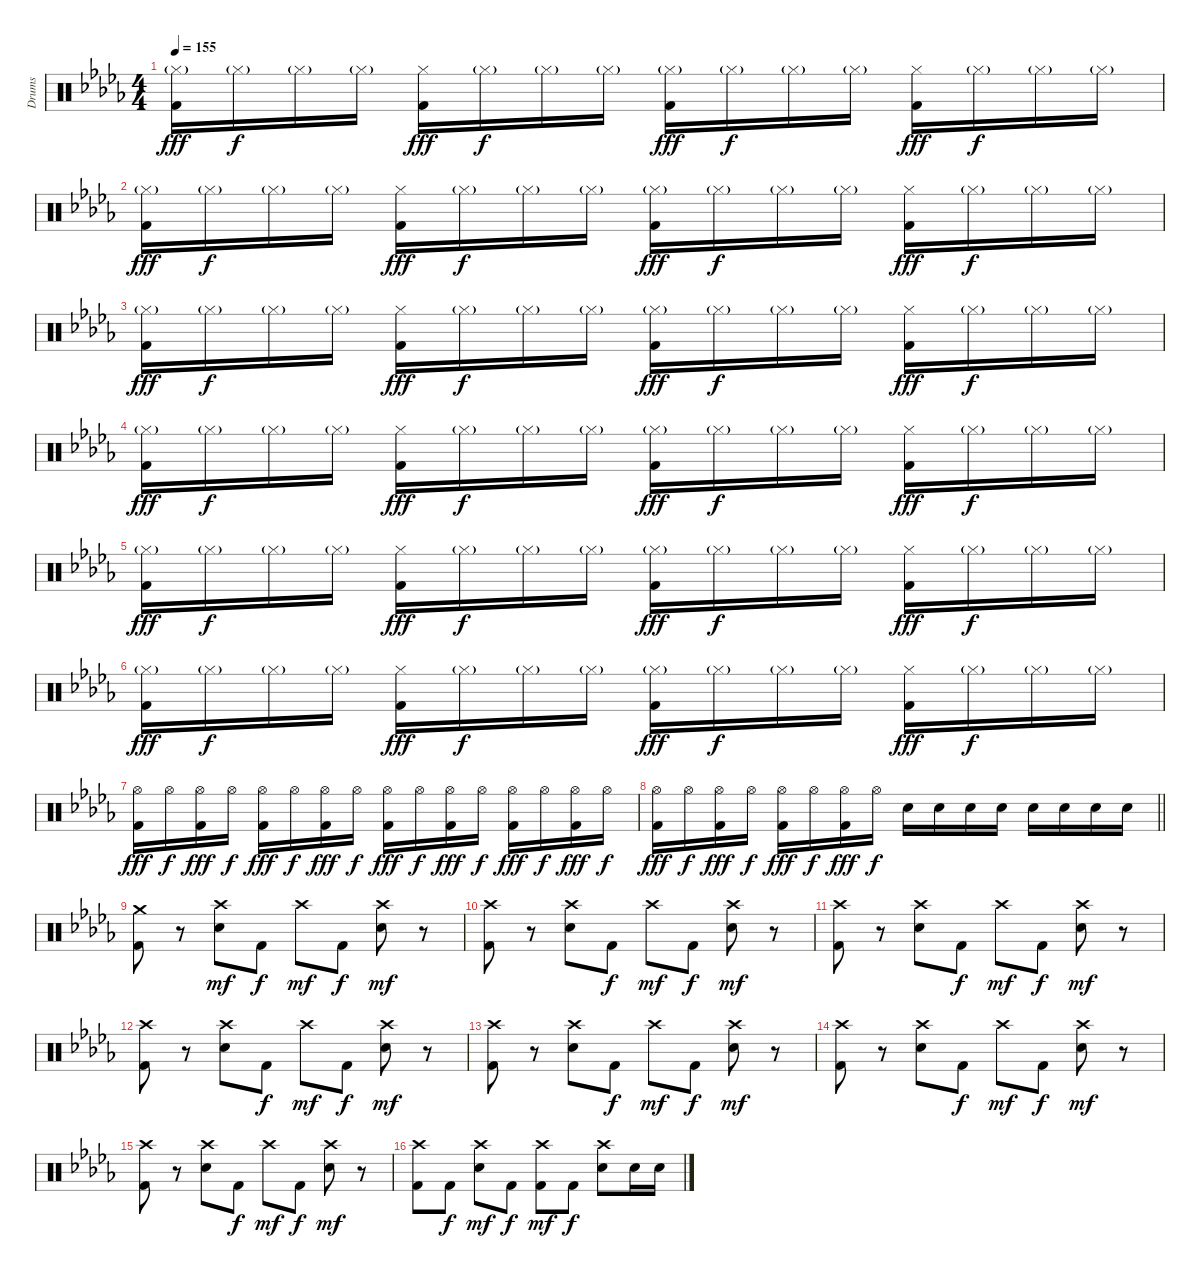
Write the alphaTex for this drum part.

\track ("Drums" "Drums") {instrument percussion}
\staff {score}
\articulation defaults
\ts (4 4)
\tempo 155
\clef neutral
\ks db
("Hi-Hat (closed)"{g} "Kick (hit) 2").16{dy fff} "Hi-Hat (closed)"{g}.16{dy f} "Hi-Hat (closed)"{g}.16 "Hi-Hat (closed)"{g}.16 ("Hi-Hat (closed)" "Kick (hit) 2").16{dy fff} "Hi-Hat (closed)"{g}.16{dy f} "Hi-Hat (closed)"{g}.16 "Hi-Hat (closed)"{g}.16 ("Hi-Hat (closed)"{g} "Kick (hit) 2").16{dy fff} "Hi-Hat (closed)"{g}.16{dy f} "Hi-Hat (closed)"{g}.16 "Hi-Hat (closed)"{g}.16 ("Hi-Hat (closed)" "Kick (hit) 2").16{dy fff} "Hi-Hat (closed)"{g}.16{dy f} "Hi-Hat (closed)"{g}.16 "Hi-Hat (closed)"{g}.16 |
("Hi-Hat (closed)"{g} "Kick (hit) 2").16{dy fff} "Hi-Hat (closed)"{g}.16{dy f} "Hi-Hat (closed)"{g}.16 "Hi-Hat (closed)"{g}.16 ("Hi-Hat (closed)" "Kick (hit) 2").16{dy fff} "Hi-Hat (closed)"{g}.16{dy f} "Hi-Hat (closed)"{g}.16 "Hi-Hat (closed)"{g}.16 ("Hi-Hat (closed)"{g} "Kick (hit) 2").16{dy fff} "Hi-Hat (closed)"{g}.16{dy f} "Hi-Hat (closed)"{g}.16 "Hi-Hat (closed)"{g}.16 ("Hi-Hat (closed)" "Kick (hit) 2").16{dy fff} "Hi-Hat (closed)"{g}.16{dy f} "Hi-Hat (closed)"{g}.16 "Hi-Hat (closed)"{g}.16 |
("Hi-Hat (closed)"{g} "Kick (hit) 2").16{dy fff} "Hi-Hat (closed)"{g}.16{dy f} "Hi-Hat (closed)"{g}.16 "Hi-Hat (closed)"{g}.16 ("Hi-Hat (closed)" "Kick (hit) 2").16{dy fff} "Hi-Hat (closed)"{g}.16{dy f} "Hi-Hat (closed)"{g}.16 "Hi-Hat (closed)"{g}.16 ("Hi-Hat (closed)"{g} "Kick (hit) 2").16{dy fff} "Hi-Hat (closed)"{g}.16{dy f} "Hi-Hat (closed)"{g}.16 "Hi-Hat (closed)"{g}.16 ("Hi-Hat (closed)" "Kick (hit) 2").16{dy fff} "Hi-Hat (closed)"{g}.16{dy f} "Hi-Hat (closed)"{g}.16 "Hi-Hat (closed)"{g}.16 |
("Hi-Hat (closed)"{g} "Kick (hit) 2").16{dy fff} "Hi-Hat (closed)"{g}.16{dy f} "Hi-Hat (closed)"{g}.16 "Hi-Hat (closed)"{g}.16 ("Hi-Hat (closed)" "Kick (hit) 2").16{dy fff} "Hi-Hat (closed)"{g}.16{dy f} "Hi-Hat (closed)"{g}.16 "Hi-Hat (closed)"{g}.16 ("Hi-Hat (closed)"{g} "Kick (hit) 2").16{dy fff} "Hi-Hat (closed)"{g}.16{dy f} "Hi-Hat (closed)"{g}.16 "Hi-Hat (closed)"{g}.16 ("Hi-Hat (closed)" "Kick (hit) 2").16{dy fff} "Hi-Hat (closed)"{g}.16{dy f} "Hi-Hat (closed)"{g}.16 "Hi-Hat (closed)"{g}.16 |
("Hi-Hat (closed)"{g} "Kick (hit) 2").16{dy fff} "Hi-Hat (closed)"{g}.16{dy f} "Hi-Hat (closed)"{g}.16 "Hi-Hat (closed)"{g}.16 ("Hi-Hat (closed)" "Kick (hit) 2").16{dy fff} "Hi-Hat (closed)"{g}.16{dy f} "Hi-Hat (closed)"{g}.16 "Hi-Hat (closed)"{g}.16 ("Hi-Hat (closed)"{g} "Kick (hit) 2").16{dy fff} "Hi-Hat (closed)"{g}.16{dy f} "Hi-Hat (closed)"{g}.16 "Hi-Hat (closed)"{g}.16 ("Hi-Hat (closed)" "Kick (hit) 2").16{dy fff} "Hi-Hat (closed)"{g}.16{dy f} "Hi-Hat (closed)"{g}.16 "Hi-Hat (closed)"{g}.16 |
("Hi-Hat (closed)"{g} "Kick (hit) 2").16{dy fff} "Hi-Hat (closed)"{g}.16{dy f} "Hi-Hat (closed)"{g}.16 "Hi-Hat (closed)"{g}.16 ("Hi-Hat (closed)" "Kick (hit) 2").16{dy fff} "Hi-Hat (closed)"{g}.16{dy f} "Hi-Hat (closed)"{g}.16 "Hi-Hat (closed)"{g}.16 ("Hi-Hat (closed)"{g} "Kick (hit) 2").16{dy fff} "Hi-Hat (closed)"{g}.16{dy f} "Hi-Hat (closed)"{g}.16 "Hi-Hat (closed)"{g}.16 ("Hi-Hat (closed)" "Kick (hit) 2").16{dy fff} "Hi-Hat (closed)"{g}.16{dy f} "Hi-Hat (closed)"{g}.16 "Hi-Hat (closed)"{g}.16 |
("Hi-Hat (open)" "Kick (hit) 2").16{dy fff} "Hi-Hat (open)".16{dy f} ("Hi-Hat (open)" "Kick (hit) 2").16{dy fff} "Hi-Hat (open)".16{dy f} ("Hi-Hat (open)" "Kick (hit) 2").16{dy fff} "Hi-Hat (open)".16{dy f} ("Hi-Hat (open)" "Kick (hit) 2").16{dy fff} "Hi-Hat (open)".16{dy f} ("Hi-Hat (open)" "Kick (hit) 2").16{dy fff} "Hi-Hat (open)".16{dy f} ("Hi-Hat (open)" "Kick (hit) 2").16{dy fff} "Hi-Hat (open)".16{dy f} ("Hi-Hat (open)" "Kick (hit) 2").16{dy fff} "Hi-Hat (open)".16{dy f} ("Hi-Hat (open)" "Kick (hit) 2").16{dy fff} "Hi-Hat (open)".16{dy f} |
\barLineRight lightlight
("Hi-Hat (open)" "Kick (hit) 2").16{dy fff} "Hi-Hat (open)".16{dy f} ("Hi-Hat (open)" "Kick (hit) 2").16{dy fff} "Hi-Hat (open)".16{dy f} ("Hi-Hat (open)" "Kick (hit) 2").16{dy fff} "Hi-Hat (open)".16{dy f} ("Hi-Hat (open)" "Kick (hit) 2").16{dy fff} "Hi-Hat (open)".16{dy f} "Electric Snare (hit)".16 "Electric Snare (hit)".16 "Electric Snare (hit)".16 "Electric Snare (hit)".16 "Electric Snare (hit)".16 "Electric Snare (hit)".16 "Electric Snare (hit)".16 "Electric Snare (hit)".16 |
("Crash medium (hit)" "Kick (hit) 2").8 r.8 ("Crash high (hit)" "Electric Snare (hit)").8{dy mf} "Kick (hit) 2".8{dy f} "Crash high (hit)".8{dy mf} "Kick (hit) 2".8{dy f} ("Crash high (hit)" "Electric Snare (hit)").8{dy mf} r.8 |
("Crash high (hit)" "Kick (hit) 2").8 r.8 ("Crash high (hit)" "Electric Snare (hit)").8 "Kick (hit) 2".8{dy f} "Crash high (hit)".8{dy mf} "Kick (hit) 2".8{dy f} ("Crash high (hit)" "Electric Snare (hit)").8{dy mf} r.8 |
("Crash high (hit)" "Kick (hit) 2").8 r.8 ("Crash high (hit)" "Electric Snare (hit)").8 "Kick (hit) 2".8{dy f} "Crash high (hit)".8{dy mf} "Kick (hit) 2".8{dy f} ("Crash high (hit)" "Electric Snare (hit)").8{dy mf} r.8 |
("Crash high (hit)" "Kick (hit) 2").8 r.8 ("Crash high (hit)" "Electric Snare (hit)").8 "Kick (hit) 2".8{dy f} "Crash high (hit)".8{dy mf} "Kick (hit) 2".8{dy f} ("Crash high (hit)" "Electric Snare (hit)").8{dy mf} r.8 |
("Crash high (hit)" "Kick (hit) 2").8 r.8 ("Crash high (hit)" "Electric Snare (hit)").8 "Kick (hit) 2".8{dy f} "Crash high (hit)".8{dy mf} "Kick (hit) 2".8{dy f} ("Crash high (hit)" "Electric Snare (hit)").8{dy mf} r.8 |
("Crash high (hit)" "Kick (hit) 2").8 r.8 ("Crash high (hit)" "Electric Snare (hit)").8 "Kick (hit) 2".8{dy f} "Crash high (hit)".8{dy mf} "Kick (hit) 2".8{dy f} ("Crash high (hit)" "Electric Snare (hit)").8{dy mf} r.8 |
("Crash high (hit)" "Kick (hit) 2").8 r.8 ("Crash high (hit)" "Electric Snare (hit)").8 "Kick (hit) 2".8{dy f} "Crash high (hit)".8{dy mf} "Kick (hit) 2".8{dy f} ("Crash high (hit)" "Electric Snare (hit)").8{dy mf} r.8 |
("Crash high (hit)" "Kick (hit) 2").8 "Kick (hit) 2".8{dy f} ("Crash high (hit)" "Electric Snare (hit)").8{dy mf} "Kick (hit) 2".8{dy f} ("Crash high (hit)" "Kick (hit) 2").8{dy mf} "Kick (hit) 2".8{dy f} ("Crash high (hit)" "Electric Snare (hit)").8 "Electric Snare (hit)".16 "Electric Snare (hit)".16
